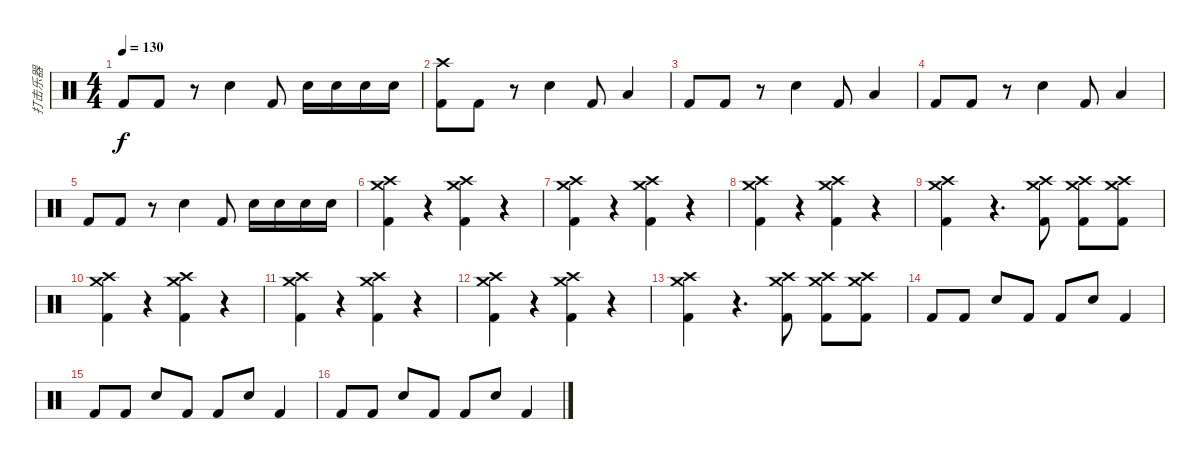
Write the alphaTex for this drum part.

\track ("打击乐器" "打击乐器") {instrument percussion}
\staff {score}
\articulation defaults
\ts (4 4)
\tempo 130
\clef neutral
\ks c "Kick (hit) 2".8{dy f} "Kick (hit) 2".8
r.8 "Snare (hit) 2".4 "Kick (hit) 2".8 "Snare (hit) 2".16 "Snare (hit) 2".16 "Snare (hit) 2".16 "Snare (hit) 2".16 |
("Crash high (hit)" "Kick (hit) 2").8 "Kick (hit) 2".8 r.8 "Snare (hit) 2".4 "Kick (hit) 2".8 "Low Floor Tom (hit)".4 |
"Kick (hit) 2".8 "Kick (hit) 2".8 r.8 "Snare (hit) 2".4 "Kick (hit) 2".8 "Low Floor Tom (hit)".4 |
"Kick (hit) 2".8 "Kick (hit) 2".8 r.8 "Snare (hit) 2".4 "Kick (hit) 2".8 "Low Floor Tom (hit)".4 |
"Kick (hit) 2".8 "Kick (hit) 2".8 r.8 "Snare (hit) 2".4 "Kick (hit) 2".8 "Snare (hit) 2".16 "Snare (hit) 2".16 "Snare (hit) 2".16 "Snare (hit) 2".16 |
("Crash high (hit)" "Crash medium (hit)" "Kick (hit) 2").4 r.4 ("Crash high (hit)" "Crash medium (hit)" "Kick (hit) 2").4 r.4 |
("Crash high (hit)" "Crash medium (hit)" "Kick (hit) 2").4 r.4 ("Crash high (hit)" "Crash medium (hit)" "Kick (hit) 2").4 r.4 |
("Crash high (hit)" "Crash medium (hit)" "Kick (hit) 2").4 r.4 ("Crash high (hit)" "Crash medium (hit)" "Kick (hit) 2").4 r.4 |
("Crash high (hit)" "Crash medium (hit)" "Kick (hit) 2").4 r.4{d} ("Crash high (hit)" "Crash medium (hit)" "Kick (hit) 2").8 ("Crash high (hit)" "Crash medium (hit)" "Kick (hit) 2").8 ("Crash high (hit)" "Crash medium (hit)" "Kick (hit) 2").8 |
("Crash high (hit)" "Crash medium (hit)" "Kick (hit) 2").4 r.4 ("Crash high (hit)" "Crash medium (hit)" "Kick (hit) 2").4 r.4 |
("Crash high (hit)" "Crash medium (hit)" "Kick (hit) 2").4 r.4 ("Crash high (hit)" "Crash medium (hit)" "Kick (hit) 2").4 r.4 |
("Crash high (hit)" "Crash medium (hit)" "Kick (hit) 2").4 r.4 ("Crash high (hit)" "Crash medium (hit)" "Kick (hit) 2").4 r.4 |
("Crash high (hit)" "Crash medium (hit)" "Kick (hit) 2").4 r.4{d} ("Crash high (hit)" "Crash medium (hit)" "Kick (hit) 2").8 ("Crash high (hit)" "Crash medium (hit)" "Kick (hit) 2").8 ("Crash high (hit)" "Crash medium (hit)" "Kick (hit) 2").8 |
"Kick (hit) 2".8 "Kick (hit) 2".8 "Snare (hit) 2".8 "Kick (hit) 2".8 "Kick (hit) 2".8 "Snare (hit) 2".8 "Kick (hit) 2".4 |
"Kick (hit) 2".8 "Kick (hit) 2".8 "Snare (hit) 2".8 "Kick (hit) 2".8 "Kick (hit) 2".8 "Snare (hit) 2".8 "Kick (hit) 2".4 |
"Kick (hit) 2".8 "Kick (hit) 2".8 "Snare (hit) 2".8 "Kick (hit) 2".8 "Kick (hit) 2".8 "Snare (hit) 2".8 "Kick (hit) 2".4
